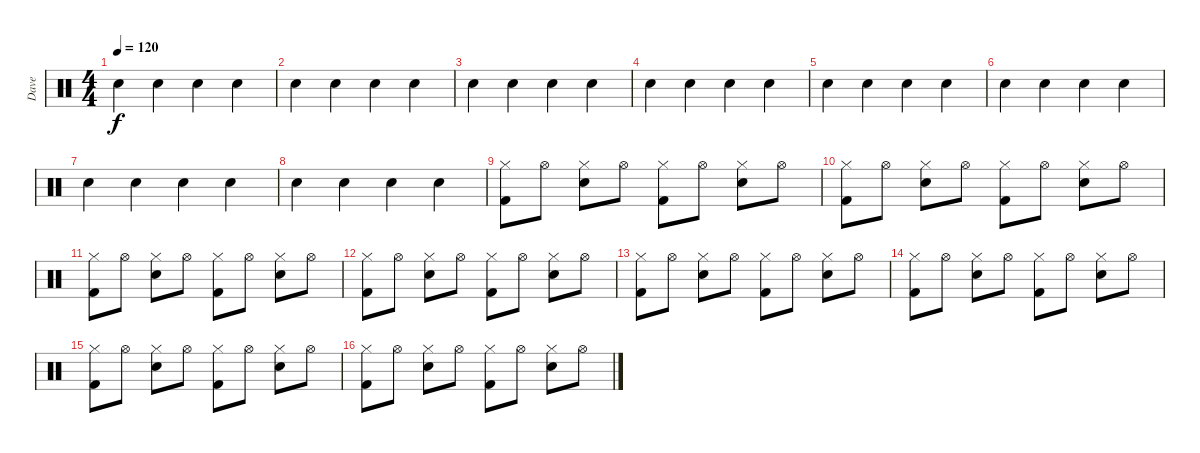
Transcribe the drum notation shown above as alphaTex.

\track ("Dave" "Dave") {instrument percussion}
\staff {score}
\articulation defaults
\ts (4 4)
\tempo 120
\clef neutral
\ks c "Snare (hit) 2".4{dy f} "Snare (hit) 2".4 "Snare (hit) 2".4 "Snare (hit) 2".4
|
"Snare (hit) 2".4 "Snare (hit) 2".4 "Snare (hit) 2".4 "Snare (hit) 2".4 |
"Snare (hit) 2".4 "Snare (hit) 2".4 "Snare (hit) 2".4 "Snare (hit) 2".4 |
"Snare (hit) 2".4 "Snare (hit) 2".4 "Snare (hit) 2".4 "Snare (hit) 2".4 |
"Snare (hit) 2".4 "Snare (hit) 2".4 "Snare (hit) 2".4 "Snare (hit) 2".4 |
"Snare (hit) 2".4 "Snare (hit) 2".4 "Snare (hit) 2".4 "Snare (hit) 2".4 |
"Snare (hit) 2".4 "Snare (hit) 2".4 "Snare (hit) 2".4 "Snare (hit) 2".4 |
"Snare (hit) 2".4 "Snare (hit) 2".4 "Snare (hit) 2".4 "Snare (hit) 2".4 |
("Hi-Hat (closed)" "Kick (hit) 2").8 "Hi-Hat (open)".8 ("Hi-Hat (closed)" "Snare (hit) 2").8 "Hi-Hat (open)".8 ("Hi-Hat (closed)" "Kick (hit) 2").8 "Hi-Hat (open)".8 ("Hi-Hat (closed)" "Snare (hit) 2").8 "Hi-Hat (open)".8 |
("Hi-Hat (closed)" "Kick (hit) 2").8 "Hi-Hat (open)".8 ("Hi-Hat (closed)" "Snare (hit) 2").8 "Hi-Hat (open)".8 ("Hi-Hat (closed)" "Kick (hit) 2").8 "Hi-Hat (open)".8 ("Hi-Hat (closed)" "Snare (hit) 2").8 "Hi-Hat (open)".8 |
("Hi-Hat (closed)" "Kick (hit) 2").8 "Hi-Hat (open)".8 ("Hi-Hat (closed)" "Snare (hit) 2").8 "Hi-Hat (open)".8 ("Hi-Hat (closed)" "Kick (hit) 2").8 "Hi-Hat (open)".8 ("Hi-Hat (closed)" "Snare (hit) 2").8 "Hi-Hat (open)".8 |
("Hi-Hat (closed)" "Kick (hit) 2").8 "Hi-Hat (open)".8 ("Hi-Hat (closed)" "Snare (hit) 2").8 "Hi-Hat (open)".8 ("Hi-Hat (closed)" "Kick (hit) 2").8 "Hi-Hat (open)".8 ("Hi-Hat (closed)" "Snare (hit) 2").8 "Hi-Hat (open)".8 |
("Hi-Hat (closed)" "Kick (hit) 2").8 "Hi-Hat (open)".8 ("Hi-Hat (closed)" "Snare (hit) 2").8 "Hi-Hat (open)".8 ("Hi-Hat (closed)" "Kick (hit) 2").8 "Hi-Hat (open)".8 ("Hi-Hat (closed)" "Snare (hit) 2").8 "Hi-Hat (open)".8 |
("Hi-Hat (closed)" "Kick (hit) 2").8 "Hi-Hat (open)".8 ("Hi-Hat (closed)" "Snare (hit) 2").8 "Hi-Hat (open)".8 ("Hi-Hat (closed)" "Kick (hit) 2").8 "Hi-Hat (open)".8 ("Hi-Hat (closed)" "Snare (hit) 2").8 "Hi-Hat (open)".8 |
("Hi-Hat (closed)" "Kick (hit) 2").8 "Hi-Hat (open)".8 ("Hi-Hat (closed)" "Snare (hit) 2").8 "Hi-Hat (open)".8 ("Hi-Hat (closed)" "Kick (hit) 2").8 "Hi-Hat (open)".8 ("Hi-Hat (closed)" "Snare (hit) 2").8 "Hi-Hat (open)".8 |
("Hi-Hat (closed)" "Kick (hit) 2").8 "Hi-Hat (open)".8 ("Hi-Hat (closed)" "Snare (hit) 2").8 "Hi-Hat (open)".8 ("Hi-Hat (closed)" "Kick (hit) 2").8 "Hi-Hat (open)".8 ("Hi-Hat (closed)" "Snare (hit) 2").8 "Hi-Hat (open)".8
